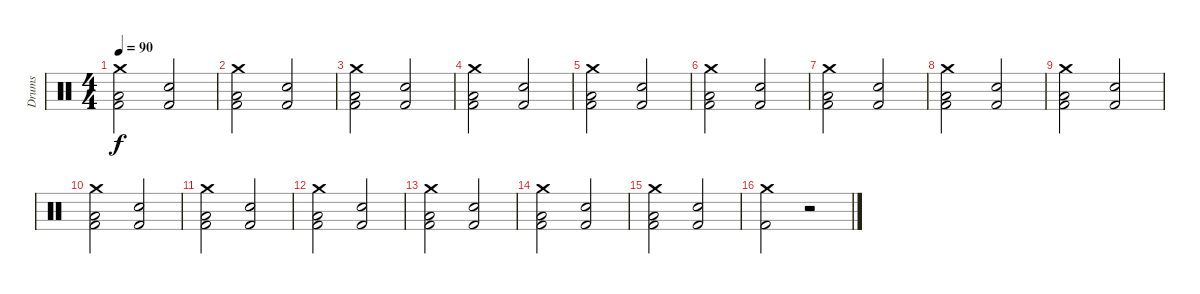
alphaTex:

\track ("Drums" "Drums") {instrument percussion}
\staff {score}
\articulation defaults
\ts (4 4)
\tempo 90
\clef neutral
\ks c
("Crash medium (hit)" "Low Floor Tom (hit)" "Kick (hit) 2").2{dy f} ("Electric Snare (hit)" "Kick (hit) 2").2 |
("Crash medium (hit)" "Low Floor Tom (hit)" "Kick (hit) 2").2 ("Electric Snare (hit)" "Kick (hit) 2").2 |
("Crash medium (hit)" "Low Floor Tom (hit)" "Kick (hit) 2").2 ("Electric Snare (hit)" "Kick (hit) 2").2 |
("Crash medium (hit)" "Low Floor Tom (hit)" "Kick (hit) 2").2 ("Electric Snare (hit)" "Kick (hit) 2").2 |
("Crash medium (hit)" "Low Floor Tom (hit)" "Kick (hit) 2").2 ("Electric Snare (hit)" "Kick (hit) 2").2 |
("Crash medium (hit)" "Low Floor Tom (hit)" "Kick (hit) 2").2 ("Electric Snare (hit)" "Kick (hit) 2").2 |
("Crash medium (hit)" "Low Floor Tom (hit)" "Kick (hit) 2").2 ("Electric Snare (hit)" "Kick (hit) 2").2 |
("Crash medium (hit)" "Low Floor Tom (hit)" "Kick (hit) 2").2 ("Electric Snare (hit)" "Kick (hit) 2").2 |
("Crash medium (hit)" "Low Floor Tom (hit)" "Kick (hit) 2").2 ("Electric Snare (hit)" "Kick (hit) 2").2 |
("Crash medium (hit)" "Low Floor Tom (hit)" "Kick (hit) 2").2 ("Electric Snare (hit)" "Kick (hit) 2").2 |
("Crash medium (hit)" "Low Floor Tom (hit)" "Kick (hit) 2").2 ("Electric Snare (hit)" "Kick (hit) 2").2 |
("Crash medium (hit)" "Low Floor Tom (hit)" "Kick (hit) 2").2 ("Electric Snare (hit)" "Kick (hit) 2").2 |
("Crash medium (hit)" "Low Floor Tom (hit)" "Kick (hit) 2").2 ("Electric Snare (hit)" "Kick (hit) 2").2 |
("Crash medium (hit)" "Low Floor Tom (hit)" "Kick (hit) 2").2 ("Electric Snare (hit)" "Kick (hit) 2").2 |
("Crash medium (hit)" "Low Floor Tom (hit)" "Kick (hit) 2").2 ("Electric Snare (hit)" "Kick (hit) 2").2 |
("Crash medium (hit)" "Kick (hit) 2").2 r.2
